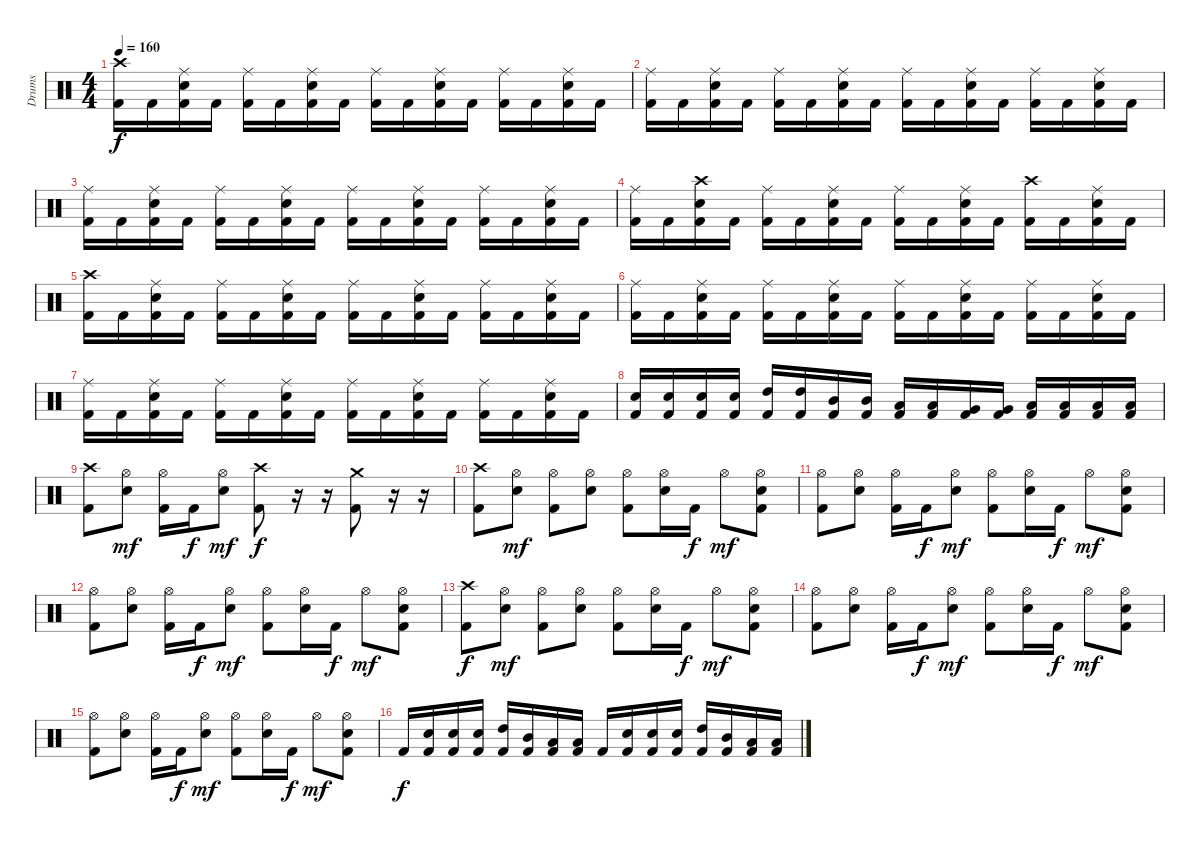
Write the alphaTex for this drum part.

\track ("Drums" "Drums") {instrument percussion}
\staff {score}
\articulation defaults
\ts (4 4)
\tempo 160
\clef neutral
\ks c
("Crash high (hit)" "Kick (hit) 2").16{dy f} "Kick (hit) 2".16 ("Ride (middle)" "Electric Snare (hit)" "Kick (hit) 2").16 "Kick (hit) 2".16 ("Ride (middle)" "Kick (hit) 2").16 "Kick (hit) 2".16 ("Ride (middle)" "Electric Snare (hit)" "Kick (hit) 2").16 "Kick (hit) 2".16 ("Ride (middle)" "Kick (hit) 2").16 "Kick (hit) 2".16 ("Ride (middle)" "Electric Snare (hit)" "Kick (hit) 2").16 "Kick (hit) 2".16 ("Ride (middle)" "Kick (hit) 2").16 "Kick (hit) 2".16 ("Ride (middle)" "Electric Snare (hit)" "Kick (hit) 2").16 "Kick (hit) 2".16 |
("Ride (middle)" "Kick (hit) 2").16 "Kick (hit) 2".16 ("Ride (middle)" "Electric Snare (hit)" "Kick (hit) 2").16 "Kick (hit) 2".16 ("Ride (middle)" "Kick (hit) 2").16 "Kick (hit) 2".16 ("Ride (middle)" "Electric Snare (hit)" "Kick (hit) 2").16 "Kick (hit) 2".16 ("Ride (middle)" "Kick (hit) 2").16 "Kick (hit) 2".16 ("Ride (middle)" "Electric Snare (hit)" "Kick (hit) 2").16 "Kick (hit) 2".16 ("Ride (middle)" "Kick (hit) 2").16 "Kick (hit) 2".16 ("Ride (middle)" "Electric Snare (hit)" "Kick (hit) 2").16 "Kick (hit) 2".16 |
("Ride (middle)" "Kick (hit) 2").16 "Kick (hit) 2".16 ("Ride (middle)" "Electric Snare (hit)" "Kick (hit) 2").16 "Kick (hit) 2".16 ("Ride (middle)" "Kick (hit) 2").16 "Kick (hit) 2".16 ("Ride (middle)" "Electric Snare (hit)" "Kick (hit) 2").16 "Kick (hit) 2".16 ("Ride (middle)" "Kick (hit) 2").16 "Kick (hit) 2".16 ("Ride (middle)" "Electric Snare (hit)" "Kick (hit) 2").16 "Kick (hit) 2".16 ("Ride (middle)" "Kick (hit) 2").16 "Kick (hit) 2".16 ("Ride (middle)" "Electric Snare (hit)" "Kick (hit) 2").16 "Kick (hit) 2".16 |
("Ride (middle)" "Kick (hit) 2").16 "Kick (hit) 2".16 ("Crash high (hit)" "Electric Snare (hit)" "Kick (hit) 2").16 "Kick (hit) 2".16 ("Ride (middle)" "Kick (hit) 2").16 "Kick (hit) 2".16 ("Ride (middle)" "Electric Snare (hit)" "Kick (hit) 2").16 "Kick (hit) 2".16 ("Ride (middle)" "Kick (hit) 2").16 "Kick (hit) 2".16 ("Ride (middle)" "Electric Snare (hit)" "Kick (hit) 2").16 "Kick (hit) 2".16 ("Crash high (hit)" "Kick (hit) 2").16 "Kick (hit) 2".16 ("Ride (middle)" "Electric Snare (hit)" "Kick (hit) 2").16 "Kick (hit) 2".16 |
("Crash high (hit)" "Kick (hit) 2").16 "Kick (hit) 2".16 ("Ride (middle)" "Electric Snare (hit)" "Kick (hit) 2").16 "Kick (hit) 2".16 ("Ride (middle)" "Kick (hit) 2").16 "Kick (hit) 2".16 ("Ride (middle)" "Electric Snare (hit)" "Kick (hit) 2").16 "Kick (hit) 2".16 ("Ride (middle)" "Kick (hit) 2").16 "Kick (hit) 2".16 ("Ride (middle)" "Electric Snare (hit)" "Kick (hit) 2").16 "Kick (hit) 2".16 ("Ride (middle)" "Kick (hit) 2").16 "Kick (hit) 2".16 ("Ride (middle)" "Electric Snare (hit)" "Kick (hit) 2").16 "Kick (hit) 2".16 |
("Ride (middle)" "Kick (hit) 2").16 "Kick (hit) 2".16 ("Ride (middle)" "Electric Snare (hit)" "Kick (hit) 2").16 "Kick (hit) 2".16 ("Ride (middle)" "Kick (hit) 2").16 "Kick (hit) 2".16 ("Ride (middle)" "Electric Snare (hit)" "Kick (hit) 2").16 "Kick (hit) 2".16 ("Ride (middle)" "Kick (hit) 2").16 "Kick (hit) 2".16 ("Ride (middle)" "Electric Snare (hit)" "Kick (hit) 2").16 "Kick (hit) 2".16 ("Ride (middle)" "Kick (hit) 2").16 "Kick (hit) 2".16 ("Ride (middle)" "Electric Snare (hit)" "Kick (hit) 2").16 "Kick (hit) 2".16 |
("Ride (middle)" "Kick (hit) 2").16 "Kick (hit) 2".16 ("Ride (middle)" "Electric Snare (hit)" "Kick (hit) 2").16 "Kick (hit) 2".16 ("Ride (middle)" "Kick (hit) 2").16 "Kick (hit) 2".16 ("Ride (middle)" "Electric Snare (hit)" "Kick (hit) 2").16 "Kick (hit) 2".16 ("Ride (middle)" "Kick (hit) 2").16 "Kick (hit) 2".16 ("Ride (middle)" "Electric Snare (hit)" "Kick (hit) 2").16 "Kick (hit) 2".16 ("Ride (middle)" "Kick (hit) 2").16 "Kick (hit) 2".16 ("Ride (middle)" "Electric Snare (hit)" "Kick (hit) 2").16 "Kick (hit) 2".16 |
("Electric Snare (hit)" "Kick (hit) 2").16 ("Electric Snare (hit)" "Kick (hit) 2").16 ("Electric Snare (hit)" "Kick (hit) 2").16 ("Electric Snare (hit)" "Kick (hit) 2").16 ("High Tom (hit)" "Kick (hit) 2").16 ("High Tom (hit)" "Kick (hit) 2").16 ("Mid Tom (hit)" "Kick (hit) 2").16 ("Mid Tom (hit)" "Kick (hit) 2").16 ("Low Tom (hit)" "Kick (hit) 2").16 ("Low Tom (hit)" "Kick (hit) 2").16 ("Very Low Tom (hit)" "Kick (hit) 2").16 ("Very Low Tom (hit)" "Kick (hit) 2").16 ("Low Floor Tom (hit)" "Kick (hit) 2").16 ("Low Floor Tom (hit)" "Kick (hit) 2").16 ("Low Floor Tom (hit)" "Kick (hit) 2").16 ("Low Floor Tom (hit)" "Kick (hit) 2").16 |
("Crash high (hit)" "Kick (hit) 2").8 ("Hi-Hat (open)" "Electric Snare (hit)").8{dy mf} ("Hi-Hat (open)" "Kick (hit) 2").16 "Kick (hit) 2".16{dy f} ("Hi-Hat (open)" "Electric Snare (hit)").8{dy mf} ("Crash high (hit)" "Kick (hit) 2").8{dy f} r.16 r.16 ("Crash medium (hit)" "Kick (hit) 2").8 r.16 r.16 |
("Crash high (hit)" "Kick (hit) 2").8 ("Hi-Hat (open)" "Electric Snare (hit)").8{dy mf} ("Hi-Hat (open)" "Kick (hit) 2").8 ("Hi-Hat (open)" "Electric Snare (hit)").8 ("Hi-Hat (open)" "Kick (hit) 2").8 ("Hi-Hat (open)" "Electric Snare (hit)").16 "Kick (hit) 2".16{dy f} "Hi-Hat (open)".8{dy mf} ("Hi-Hat (open)" "Electric Snare (hit)" "Kick (hit) 2").8 |
("Hi-Hat (open)" "Kick (hit) 2").8 ("Hi-Hat (open)" "Electric Snare (hit)").8 ("Hi-Hat (open)" "Kick (hit) 2").16 "Kick (hit) 2".16{dy f} ("Hi-Hat (open)" "Electric Snare (hit)").8{dy mf} ("Hi-Hat (open)" "Kick (hit) 2").8 ("Hi-Hat (open)" "Electric Snare (hit)").16 "Kick (hit) 2".16{dy f} "Hi-Hat (open)".8{dy mf} ("Hi-Hat (open)" "Electric Snare (hit)" "Kick (hit) 2").8 |
("Hi-Hat (open)" "Kick (hit) 2").8 ("Hi-Hat (open)" "Electric Snare (hit)").8 ("Hi-Hat (open)" "Kick (hit) 2").16 "Kick (hit) 2".16{dy f} ("Hi-Hat (open)" "Electric Snare (hit)").8{dy mf} ("Hi-Hat (open)" "Kick (hit) 2").8 ("Hi-Hat (open)" "Electric Snare (hit)").16 "Kick (hit) 2".16{dy f} "Hi-Hat (open)".8{dy mf} ("Hi-Hat (open)" "Electric Snare (hit)" "Kick (hit) 2").8 |
("Crash high (hit)" "Kick (hit) 2").8{dy f} ("Hi-Hat (open)" "Electric Snare (hit)").8{dy mf} ("Hi-Hat (open)" "Kick (hit) 2").8 ("Hi-Hat (open)" "Electric Snare (hit)").8 ("Hi-Hat (open)" "Kick (hit) 2").8 ("Hi-Hat (open)" "Electric Snare (hit)").16 "Kick (hit) 2".16{dy f} "Hi-Hat (open)".8{dy mf} ("Hi-Hat (open)" "Electric Snare (hit)" "Kick (hit) 2").8 |
("Hi-Hat (open)" "Kick (hit) 2").8 ("Hi-Hat (open)" "Electric Snare (hit)").8 ("Hi-Hat (open)" "Kick (hit) 2").16 "Kick (hit) 2".16{dy f} ("Hi-Hat (open)" "Electric Snare (hit)").8{dy mf} ("Hi-Hat (open)" "Kick (hit) 2").8 ("Hi-Hat (open)" "Electric Snare (hit)").16 "Kick (hit) 2".16{dy f} "Hi-Hat (open)".8{dy mf} ("Hi-Hat (open)" "Electric Snare (hit)" "Kick (hit) 2").8 |
("Hi-Hat (open)" "Kick (hit) 2").8 ("Hi-Hat (open)" "Electric Snare (hit)").8 ("Hi-Hat (open)" "Kick (hit) 2").16 "Kick (hit) 2".16{dy f} ("Hi-Hat (open)" "Electric Snare (hit)").8{dy mf} ("Hi-Hat (open)" "Kick (hit) 2").8 ("Hi-Hat (open)" "Electric Snare (hit)").16 "Kick (hit) 2".16{dy f} "Hi-Hat (open)".8{dy mf} ("Hi-Hat (open)" "Electric Snare (hit)" "Kick (hit) 2").8 |
"Kick (hit) 2".16{dy f} ("Electric Snare (hit)" "Kick (hit) 2").16 ("Electric Snare (hit)" "Kick (hit) 2").16 ("Electric Snare (hit)" "Kick (hit) 2").16 ("High Tom (hit)" "Kick (hit) 2").16 ("Mid Tom (hit)" "Kick (hit) 2").16 ("Low Tom (hit)" "Kick (hit) 2").16 ("Low Floor Tom (hit)" "Kick (hit) 2").16 "Kick (hit) 2".16 ("Electric Snare (hit)" "Kick (hit) 2").16 ("Electric Snare (hit)" "Kick (hit) 2").16 ("Electric Snare (hit)" "Kick (hit) 2").16 ("High Tom (hit)" "Kick (hit) 2").16 ("Mid Tom (hit)" "Kick (hit) 2").16 ("Low Tom (hit)" "Kick (hit) 2").16 ("Low Floor Tom (hit)" "Kick (hit) 2").16
